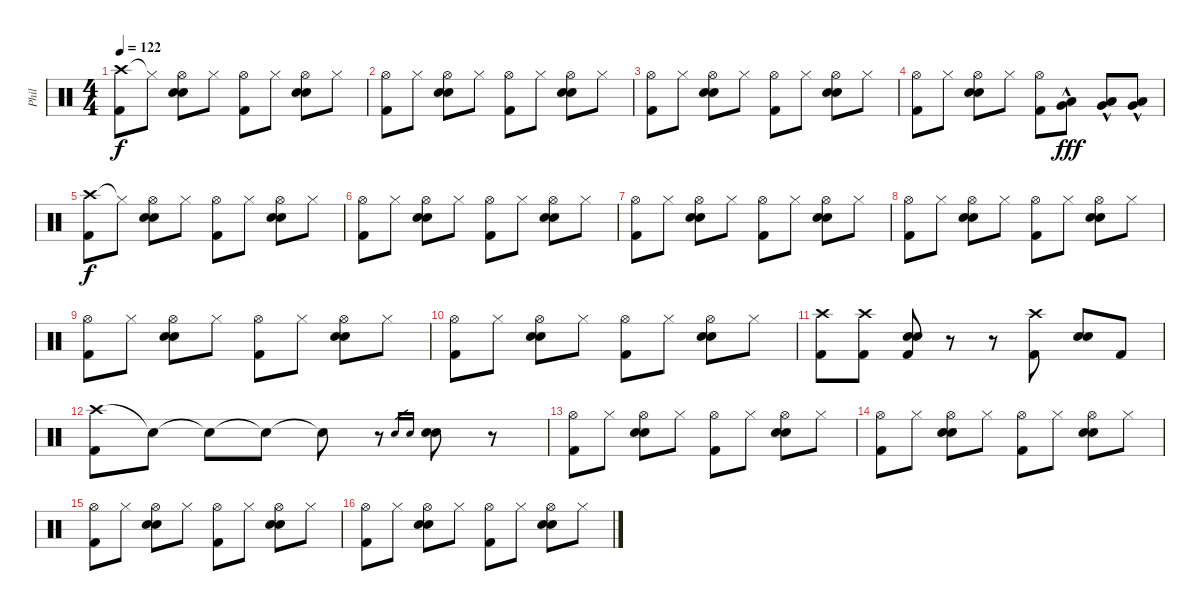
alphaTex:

\track ("Phil" "Phil") {instrument percussion}
\staff {score}
\articulation defaults
\ts (4 4)
\tempo 122
\clef neutral
\ks c
("Crash high (hit)" "Kick (hit) 2").8{dy f} "Hi-Hat (closed)"{t}.8 ("Hi-Hat (open)" "Snare (hit) 2" "Electric Snare (hit)").8 "Hi-Hat (closed)".8 ("Hi-Hat (open)" "Kick (hit) 2").8 "Hi-Hat (closed)".8 ("Hi-Hat (open)" "Snare (hit) 2" "Electric Snare (hit)").8 "Hi-Hat (closed)".8 |
("Hi-Hat (open)" "Kick (hit) 2").8 "Hi-Hat (closed)".8 ("Hi-Hat (open)" "Snare (hit) 2" "Electric Snare (hit)").8 "Hi-Hat (closed)".8 ("Hi-Hat (open)" "Kick (hit) 2").8 "Hi-Hat (closed)".8 ("Hi-Hat (open)" "Snare (hit) 2" "Electric Snare (hit)").8 "Hi-Hat (closed)".8 |
("Hi-Hat (open)" "Kick (hit) 2").8 "Hi-Hat (closed)".8 ("Hi-Hat (open)" "Snare (hit) 2" "Electric Snare (hit)").8 "Hi-Hat (closed)".8 ("Hi-Hat (open)" "Kick (hit) 2").8 "Hi-Hat (closed)".8 ("Hi-Hat (open)" "Snare (hit) 2" "Electric Snare (hit)").8 "Hi-Hat (closed)".8 |
("Hi-Hat (open)" "Kick (hit) 2").8 "Hi-Hat (closed)".8 ("Hi-Hat (open)" "Snare (hit) 2" "Electric Snare (hit)").8 "Hi-Hat (closed)".8 ("Hi-Hat (open)" "Kick (hit) 2").8 ("Very Low Tom (hit)"{hac} "Low Floor Tom (hit)"{hac}).8{dy fff balance 8} ("Very Low Tom (hit)"{hac} "Low Floor Tom (hit)"{hac}).8 ("Very Low Tom (hit)"{hac} "Low Floor Tom (hit)"{hac}).8 |
("Crash high (hit)" "Kick (hit) 2").8{dy f balance 8} "Hi-Hat (closed)"{t}.8 ("Hi-Hat (open)" "Snare (hit) 2" "Electric Snare (hit)").8 "Hi-Hat (closed)".8 ("Hi-Hat (open)" "Kick (hit) 2").8 "Hi-Hat (closed)".8 ("Hi-Hat (open)" "Snare (hit) 2" "Electric Snare (hit)").8 "Hi-Hat (closed)".8 |
("Hi-Hat (open)" "Kick (hit) 2").8 "Hi-Hat (closed)".8 ("Hi-Hat (open)" "Snare (hit) 2" "Electric Snare (hit)").8 "Hi-Hat (closed)".8 ("Hi-Hat (open)" "Kick (hit) 2").8 "Hi-Hat (closed)".8 ("Hi-Hat (open)" "Snare (hit) 2" "Electric Snare (hit)").8 "Hi-Hat (closed)".8 |
("Hi-Hat (open)" "Kick (hit) 2").8 "Hi-Hat (closed)".8 ("Hi-Hat (open)" "Snare (hit) 2" "Electric Snare (hit)").8 "Hi-Hat (closed)".8 ("Hi-Hat (open)" "Kick (hit) 2").8 "Hi-Hat (closed)".8 ("Hi-Hat (open)" "Snare (hit) 2" "Electric Snare (hit)").8 "Hi-Hat (closed)".8 |
("Hi-Hat (open)" "Kick (hit) 2").8 "Hi-Hat (closed)".8 ("Hi-Hat (open)" "Snare (hit) 2" "Electric Snare (hit)").8 "Hi-Hat (closed)".8 ("Hi-Hat (open)" "Kick (hit) 2").8 "Hi-Hat (closed)".8 ("Hi-Hat (open)" "Snare (hit) 2" "Electric Snare (hit)").8 "Hi-Hat (closed)".8 |
("Hi-Hat (open)" "Kick (hit) 2").8 "Hi-Hat (closed)".8 ("Hi-Hat (open)" "Snare (hit) 2" "Electric Snare (hit)").8 "Hi-Hat (closed)".8 ("Hi-Hat (open)" "Kick (hit) 2").8 "Hi-Hat (closed)".8 ("Hi-Hat (open)" "Snare (hit) 2" "Electric Snare (hit)").8 "Hi-Hat (closed)".8 |
("Hi-Hat (open)" "Kick (hit) 2").8 "Hi-Hat (closed)".8 ("Hi-Hat (open)" "Snare (hit) 2" "Electric Snare (hit)").8 "Hi-Hat (closed)".8 ("Hi-Hat (open)" "Kick (hit) 2").8 "Hi-Hat (closed)".8 ("Hi-Hat (open)" "Snare (hit) 2" "Electric Snare (hit)").8 "Hi-Hat (closed)".8 |
("Crash high (hit)" "Kick (hit) 2").8 ("Crash high (hit)" "Kick (hit) 2").8 ("Snare (hit) 2" "Electric Snare (hit)" "Kick (hit) 2").8 r.8 r.8 ("Crash high (hit)" "Kick (hit) 2").8 ("Snare (hit) 2" "Electric Snare (hit)").8 "Kick (hit) 2".8 |
("Crash high (hit)" "Kick (hit) 2").8 "Snare (hit)"{t}.8 "Snare (hit)"{t}.8 "Snare (hit)"{t}.8 "Snare (hit)"{t}.8 r.8 "Snare (hit) 2".16{gr} "Electric Snare (hit)".16{gr} ("Snare (hit) 2" "Electric Snare (hit)").8 r.8 |
("Hi-Hat (open)" "Kick (hit) 2").8 "Hi-Hat (closed)".8 ("Hi-Hat (open)" "Snare (hit) 2" "Electric Snare (hit)").8 "Hi-Hat (closed)".8 ("Hi-Hat (open)" "Kick (hit) 2").8 "Hi-Hat (closed)".8 ("Hi-Hat (open)" "Snare (hit) 2" "Electric Snare (hit)").8 "Hi-Hat (closed)".8 |
("Hi-Hat (open)" "Kick (hit) 2").8 "Hi-Hat (closed)".8 ("Hi-Hat (open)" "Snare (hit) 2" "Electric Snare (hit)").8 "Hi-Hat (closed)".8 ("Hi-Hat (open)" "Kick (hit) 2").8 "Hi-Hat (closed)".8 ("Hi-Hat (open)" "Snare (hit) 2" "Electric Snare (hit)").8 "Hi-Hat (closed)".8 |
("Hi-Hat (open)" "Kick (hit) 2").8 "Hi-Hat (closed)".8 ("Hi-Hat (open)" "Snare (hit) 2" "Electric Snare (hit)").8 "Hi-Hat (closed)".8 ("Hi-Hat (open)" "Kick (hit) 2").8 "Hi-Hat (closed)".8 ("Hi-Hat (open)" "Snare (hit) 2" "Electric Snare (hit)").8 "Hi-Hat (closed)".8 |
("Hi-Hat (open)" "Kick (hit) 2").8 "Hi-Hat (closed)".8 ("Hi-Hat (open)" "Snare (hit) 2" "Electric Snare (hit)").8 "Hi-Hat (closed)".8 ("Hi-Hat (open)" "Kick (hit) 2").8 "Hi-Hat (closed)".8 ("Hi-Hat (open)" "Snare (hit) 2" "Electric Snare (hit)").8 "Hi-Hat (closed)".8
